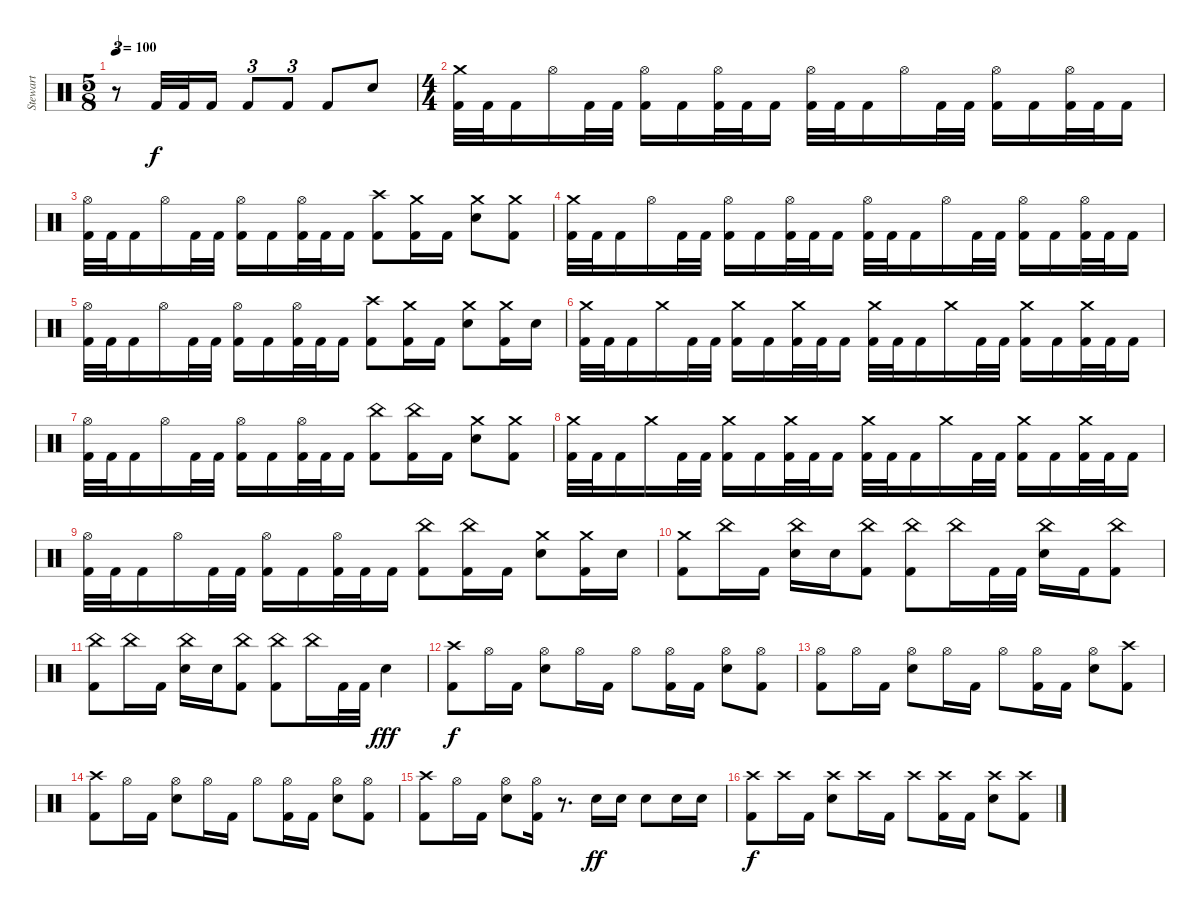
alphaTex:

\track ("Stewart" "Stewart") {instrument percussion}
\staff {score}
\articulation defaults
\ts (5 8)
\tempo 100
\clef neutral
\ks c
r.8{tu (3 2) dy f} "Kick (hit) 2".32 "Kick (hit) 2".32 "Kick (hit) 2".16 "Kick (hit) 2".8{tu (3 2)} "Kick (hit) 2".8{tu (3 2)} "Kick (hit) 2".8 "Electric Snare (hit)".8 |
\ts (4 4)
("Crash medium (hit)" "Kick (hit) 2").32 "Kick (hit) 2".32 "Kick (hit) 2".16 "Hi-Hat (open)".16 "Kick (hit) 2".32 "Kick (hit) 2".32 ("Hi-Hat (open)" "Kick (hit) 2").16 "Kick (hit) 2".16 ("Hi-Hat (open)" "Kick (hit) 2").32 "Kick (hit) 2".32 "Kick (hit) 2".16 ("Hi-Hat (open)" "Kick (hit) 2").32 "Kick (hit) 2".32 "Kick (hit) 2".16 "Hi-Hat (open)".16 "Kick (hit) 2".32 "Kick (hit) 2".32 ("Hi-Hat (open)" "Kick (hit) 2").16 "Kick (hit) 2".16 ("Hi-Hat (open)" "Kick (hit) 2").32 "Kick (hit) 2".32 "Kick (hit) 2".16 |
("Hi-Hat (open)" "Kick (hit) 2").32 "Kick (hit) 2".32 "Kick (hit) 2".16 "Hi-Hat (open)".16 "Kick (hit) 2".32 "Kick (hit) 2".32 ("Hi-Hat (open)" "Kick (hit) 2").16 "Kick (hit) 2".16 ("Hi-Hat (open)" "Kick (hit) 2").32 "Kick (hit) 2".32 "Kick (hit) 2".16 ("Crash high (hit)" "Kick (hit) 2").8 ("Crash medium (hit)" "Kick (hit) 2").16 "Kick (hit) 2".16 ("Crash medium (hit)" "Electric Snare (hit)").8 ("Crash medium (hit)" "Kick (hit) 2").8 |
("Crash medium (hit)" "Kick (hit) 2").32 "Kick (hit) 2".32 "Kick (hit) 2".16 "Hi-Hat (open)".16 "Kick (hit) 2".32 "Kick (hit) 2".32 ("Hi-Hat (open)" "Kick (hit) 2").16 "Kick (hit) 2".16 ("Hi-Hat (open)" "Kick (hit) 2").32 "Kick (hit) 2".32 "Kick (hit) 2".16 ("Hi-Hat (open)" "Kick (hit) 2").32 "Kick (hit) 2".32 "Kick (hit) 2".16 "Hi-Hat (open)".16 "Kick (hit) 2".32 "Kick (hit) 2".32 ("Hi-Hat (open)" "Kick (hit) 2").16 "Kick (hit) 2".16 ("Hi-Hat (open)" "Kick (hit) 2").32 "Kick (hit) 2".32 "Kick (hit) 2".16 |
("Hi-Hat (open)" "Kick (hit) 2").32 "Kick (hit) 2".32 "Kick (hit) 2".16 "Hi-Hat (open)".16 "Kick (hit) 2".32 "Kick (hit) 2".32 ("Hi-Hat (open)" "Kick (hit) 2").16 "Kick (hit) 2".16 ("Hi-Hat (open)" "Kick (hit) 2").32 "Kick (hit) 2".32 "Kick (hit) 2".16 ("Crash high (hit)" "Kick (hit) 2").8 ("Crash medium (hit)" "Kick (hit) 2").16 "Kick (hit) 2".16 ("Crash medium (hit)" "Electric Snare (hit)").8 ("Crash medium (hit)" "Kick (hit) 2").16 "Electric Snare (hit)".16 |
("Crash medium (hit)" "Kick (hit) 2").32 "Kick (hit) 2".32 "Kick (hit) 2".16 "Crash medium (hit)".16 "Kick (hit) 2".32 "Kick (hit) 2".32 ("Crash medium (hit)" "Kick (hit) 2").16 "Kick (hit) 2".16 ("Crash medium (hit)" "Kick (hit) 2").32 "Kick (hit) 2".32 "Kick (hit) 2".16 ("Crash medium (hit)" "Kick (hit) 2").32 "Kick (hit) 2".32 "Kick (hit) 2".16 "Crash medium (hit)".16 "Kick (hit) 2".32 "Kick (hit) 2".32 ("Crash medium (hit)" "Kick (hit) 2").16 "Kick (hit) 2".16 ("Crash medium (hit)" "Kick (hit) 2").32 "Kick (hit) 2".32 "Kick (hit) 2".16 |
("Hi-Hat (open)" "Kick (hit) 2").32 "Kick (hit) 2".32 "Kick (hit) 2".16 "Hi-Hat (open)".16 "Kick (hit) 2".32 "Kick (hit) 2".32 ("Hi-Hat (open)" "Kick (hit) 2").16 "Kick (hit) 2".16 ("Hi-Hat (open)" "Kick (hit) 2").32 "Kick (hit) 2".32 "Kick (hit) 2".16 ("China (hit)" "Kick (hit) 2").8 ("China (hit)" "Kick (hit) 2").16 "Kick (hit) 2".16 ("Crash medium (hit)" "Electric Snare (hit)").8 ("Crash medium (hit)" "Kick (hit) 2").8 |
("Crash medium (hit)" "Kick (hit) 2").32 "Kick (hit) 2".32 "Kick (hit) 2".16 "Crash medium (hit)".16 "Kick (hit) 2".32 "Kick (hit) 2".32 ("Crash medium (hit)" "Kick (hit) 2").16 "Kick (hit) 2".16 ("Crash medium (hit)" "Kick (hit) 2").32 "Kick (hit) 2".32 "Kick (hit) 2".16 ("Crash medium (hit)" "Kick (hit) 2").32 "Kick (hit) 2".32 "Kick (hit) 2".16 "Crash medium (hit)".16 "Kick (hit) 2".32 "Kick (hit) 2".32 ("Crash medium (hit)" "Kick (hit) 2").16 "Kick (hit) 2".16 ("Crash medium (hit)" "Kick (hit) 2").32 "Kick (hit) 2".32 "Kick (hit) 2".16 |
("Hi-Hat (open)" "Kick (hit) 2").32 "Kick (hit) 2".32 "Kick (hit) 2".16 "Hi-Hat (open)".16 "Kick (hit) 2".32 "Kick (hit) 2".32 ("Hi-Hat (open)" "Kick (hit) 2").16 "Kick (hit) 2".16 ("Hi-Hat (open)" "Kick (hit) 2").32 "Kick (hit) 2".32 "Kick (hit) 2".16 ("China (hit)" "Kick (hit) 2").8 ("China (hit)" "Kick (hit) 2").16 "Kick (hit) 2".16 ("Crash medium (hit)" "Electric Snare (hit)").8 ("Crash medium (hit)" "Kick (hit) 2").16 "Electric Snare (hit)".16 |
("Crash medium (hit)" "Kick (hit) 2").8 "China (hit)".16 "Kick (hit) 2".16 ("China (hit)" "Electric Snare (hit)").16 "Electric Snare (hit)".16 ("China (hit)" "Kick (hit) 2").8 ("China (hit)" "Kick (hit) 2").8 "China (hit)".16 "Kick (hit) 2".32 "Kick (hit) 2".32 ("China (hit)" "Electric Snare (hit)").16 "Kick (hit) 2".16 ("China (hit)" "Kick (hit) 2").8 |
("China (hit)" "Kick (hit) 2").8 "China (hit)".16 "Kick (hit) 2".16 ("China (hit)" "Electric Snare (hit)").16 "Electric Snare (hit)".16 ("China (hit)" "Kick (hit) 2").8 ("China (hit)" "Kick (hit) 2").8 "China (hit)".16 "Kick (hit) 2".32 "Kick (hit) 2".32 "Electric Snare (hit)".4{dy fff} |
("Crash high (hit)" "Kick (hit) 2").8{dy f} "Hi-Hat (open)".16 "Kick (hit) 2".16 ("Hi-Hat (open)" "Electric Snare (hit)").8 "Hi-Hat (open)".16 "Kick (hit) 2".16 "Hi-Hat (open)".8 ("Hi-Hat (open)" "Kick (hit) 2").16 "Kick (hit) 2".16 ("Hi-Hat (open)" "Electric Snare (hit)").8 ("Hi-Hat (open)" "Kick (hit) 2").8 |
("Hi-Hat (open)" "Kick (hit) 2").8 "Hi-Hat (open)".16 "Kick (hit) 2".16 ("Hi-Hat (open)" "Electric Snare (hit)").8 "Hi-Hat (open)".16 "Kick (hit) 2".16 "Hi-Hat (open)".8 ("Hi-Hat (open)" "Kick (hit) 2").16 "Kick (hit) 2".16 ("Hi-Hat (open)" "Electric Snare (hit)").8 ("Crash high (hit)" "Kick (hit) 2").8 |
("Crash high (hit)" "Kick (hit) 2").8 "Hi-Hat (open)".16 "Kick (hit) 2".16 ("Hi-Hat (open)" "Electric Snare (hit)").8 "Hi-Hat (open)".16 "Kick (hit) 2".16 "Hi-Hat (open)".8 ("Hi-Hat (open)" "Kick (hit) 2").16 "Kick (hit) 2".16 ("Hi-Hat (open)" "Electric Snare (hit)").8 ("Hi-Hat (open)" "Kick (hit) 2").8 |
("Crash high (hit)" "Kick (hit) 2").8 "Hi-Hat (open)".16 "Kick (hit) 2".16 ("Hi-Hat (open)" "Electric Snare (hit)").8 ("Hi-Hat (open)" "Kick (hit) 2").16 r.8{d} "Electric Snare (hit)".16{dy ff} "Electric Snare (hit)".16 "Electric Snare (hit)".8 "Electric Snare (hit)".16 "Electric Snare (hit)".16 |
("Crash high (hit)" "Kick (hit) 2").8{dy f} "Crash high (hit)".16 "Kick (hit) 2".16 ("Crash high (hit)" "Electric Snare (hit)").8 "Crash high (hit)".16 "Kick (hit) 2".16 "Crash high (hit)".8 ("Crash high (hit)" "Kick (hit) 2").16 "Kick (hit) 2".16 ("Crash high (hit)" "Electric Snare (hit)").8 ("Crash high (hit)" "Kick (hit) 2").8
